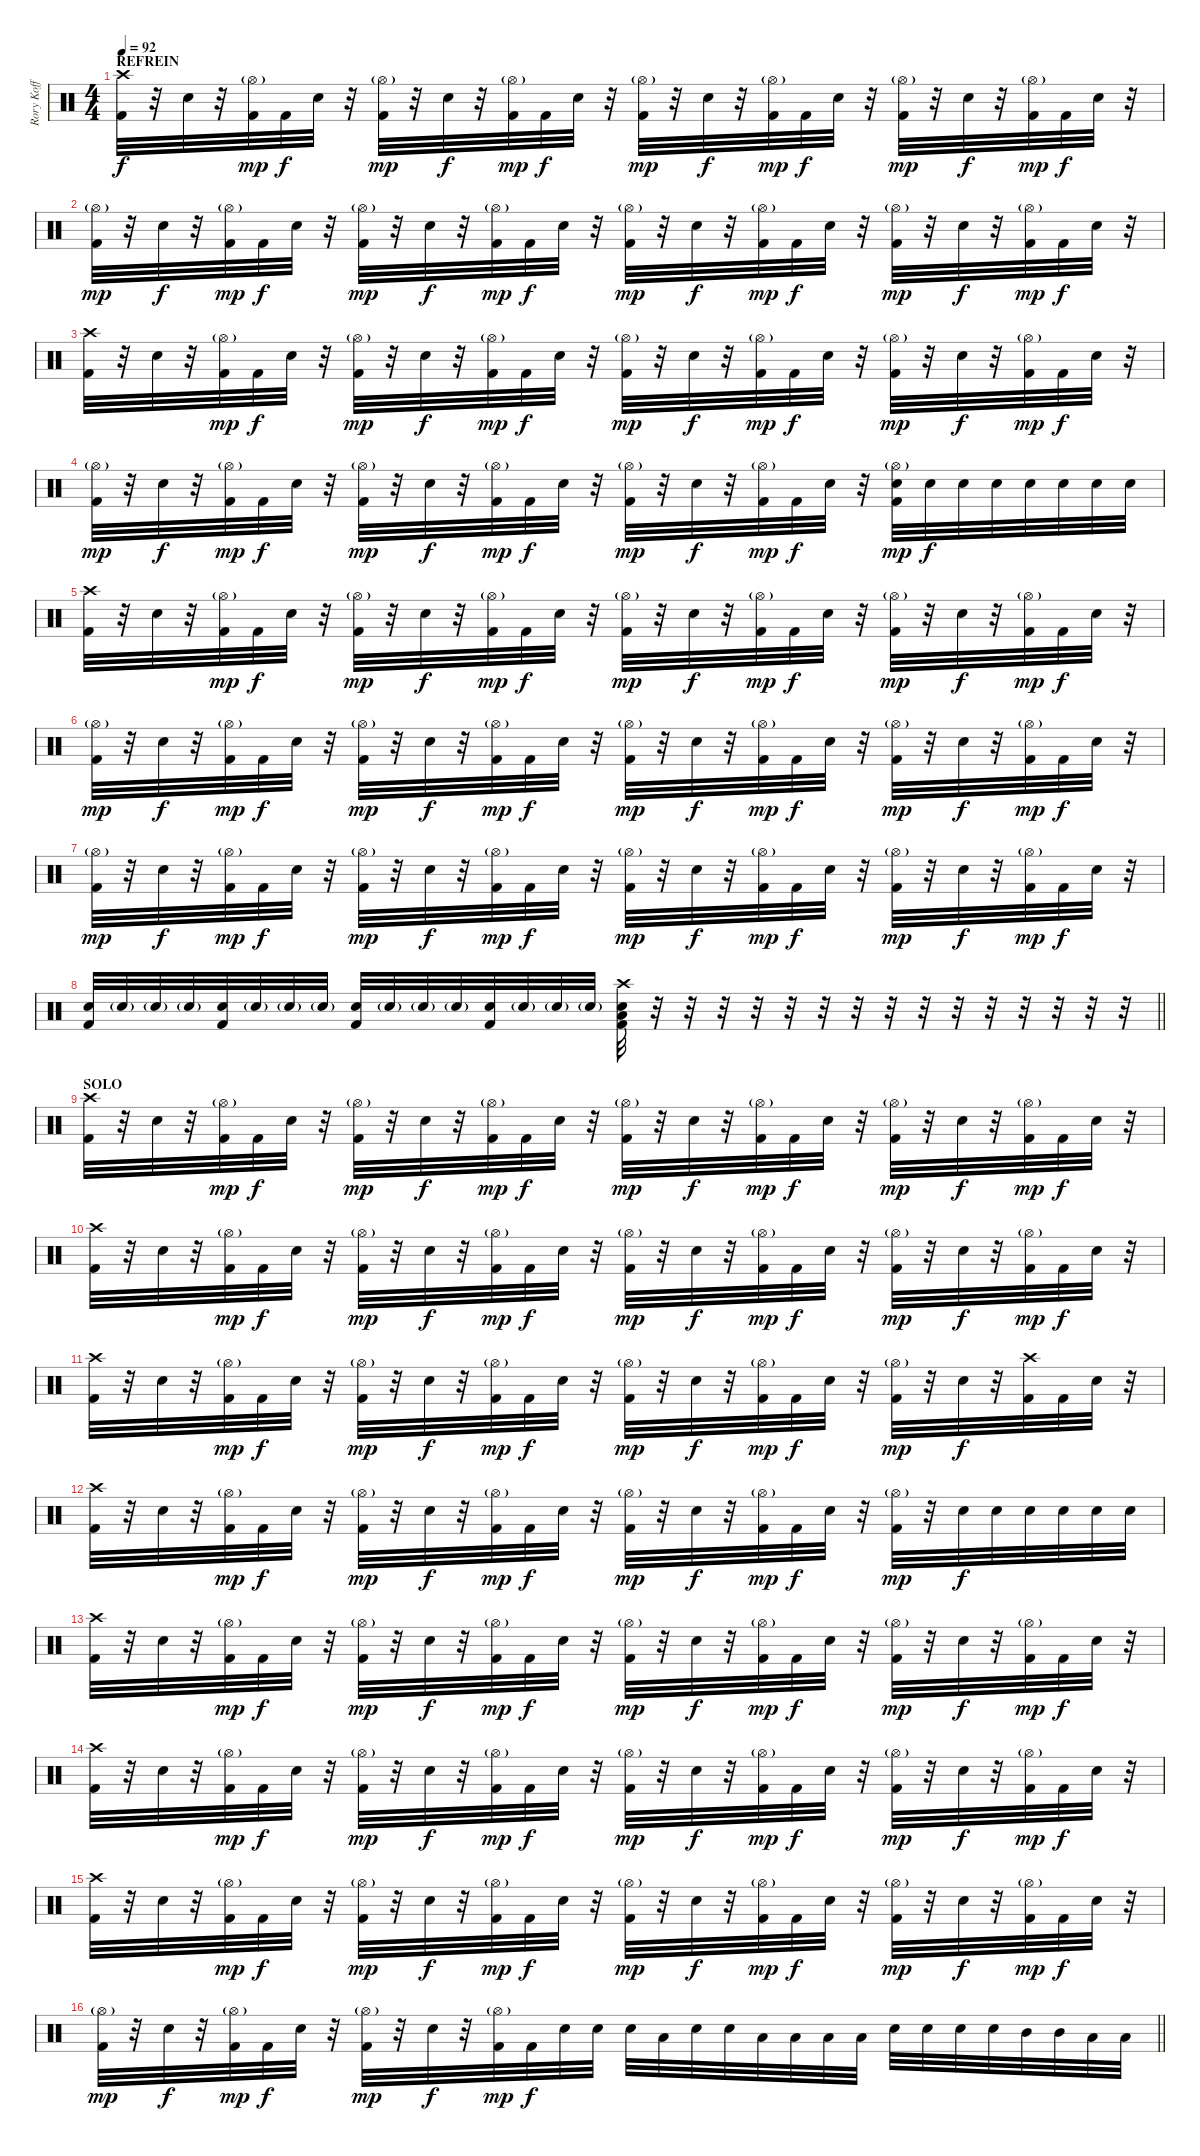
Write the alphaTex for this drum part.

\track ("Rory Koff" "Rory Koff") {instrument percussion}
\staff {score}
\articulation defaults
\ts (4 4)
\section ("" "REFREIN")
\tempo 92
\clef neutral
\ks c
("Crash high (hit)" "Kick (hit) 2").32{dy f} r.32 "Snare (hit) 2".32 r.32 ("Hi-Hat (open)"{g} "Kick (hit) 2").32{dy mp} "Kick (hit) 2".32{dy f} "Snare (hit) 2".32 r.32 ("Hi-Hat (open)"{g} "Kick (hit) 2").32{dy mp} r.32 "Snare (hit) 2".32{dy f} r.32 ("Hi-Hat (open)"{g} "Kick (hit) 2").32{dy mp} "Kick (hit) 2".32{dy f} "Snare (hit) 2".32 r.32 ("Hi-Hat (open)"{g} "Kick (hit) 2").32{dy mp} r.32 "Snare (hit) 2".32{dy f} r.32 ("Hi-Hat (open)"{g} "Kick (hit) 2").32{dy mp} "Kick (hit) 2".32{dy f} "Snare (hit) 2".32 r.32 ("Hi-Hat (open)"{g} "Kick (hit) 2").32{dy mp} r.32 "Snare (hit) 2".32{dy f} r.32 ("Hi-Hat (open)"{g} "Kick (hit) 2").32{dy mp} "Kick (hit) 2".32{dy f} "Snare (hit) 2".32 r.32 |
("Hi-Hat (open)"{g} "Kick (hit) 2").32{dy mp} r.32 "Snare (hit) 2".32{dy f} r.32 ("Hi-Hat (open)"{g} "Kick (hit) 2").32{dy mp} "Kick (hit) 2".32{dy f} "Snare (hit) 2".32 r.32 ("Hi-Hat (open)"{g} "Kick (hit) 2").32{dy mp} r.32 "Snare (hit) 2".32{dy f} r.32 ("Hi-Hat (open)"{g} "Kick (hit) 2").32{dy mp} "Kick (hit) 2".32{dy f} "Snare (hit) 2".32 r.32 ("Hi-Hat (open)"{g} "Kick (hit) 2").32{dy mp} r.32 "Snare (hit) 2".32{dy f} r.32 ("Hi-Hat (open)"{g} "Kick (hit) 2").32{dy mp} "Kick (hit) 2".32{dy f} "Snare (hit) 2".32 r.32 ("Hi-Hat (open)"{g} "Kick (hit) 2").32{dy mp} r.32 "Snare (hit) 2".32{dy f} r.32 ("Hi-Hat (open)"{g} "Kick (hit) 2").32{dy mp} "Kick (hit) 2".32{dy f} "Snare (hit) 2".32 r.32 |
("Crash high (hit)" "Kick (hit) 2").32 r.32 "Snare (hit) 2".32 r.32 ("Hi-Hat (open)"{g} "Kick (hit) 2").32{dy mp} "Kick (hit) 2".32{dy f} "Snare (hit) 2".32 r.32 ("Hi-Hat (open)"{g} "Kick (hit) 2").32{dy mp} r.32 "Snare (hit) 2".32{dy f} r.32 ("Hi-Hat (open)"{g} "Kick (hit) 2").32{dy mp} "Kick (hit) 2".32{dy f} "Snare (hit) 2".32 r.32 ("Hi-Hat (open)"{g} "Kick (hit) 2").32{dy mp} r.32 "Snare (hit) 2".32{dy f} r.32 ("Hi-Hat (open)"{g} "Kick (hit) 2").32{dy mp} "Kick (hit) 2".32{dy f} "Snare (hit) 2".32 r.32 ("Hi-Hat (open)"{g} "Kick (hit) 2").32{dy mp} r.32 "Snare (hit) 2".32{dy f} r.32 ("Hi-Hat (open)"{g} "Kick (hit) 2").32{dy mp} "Kick (hit) 2".32{dy f} "Snare (hit) 2".32 r.32 |
("Hi-Hat (open)"{g} "Kick (hit) 2").32{dy mp} r.32 "Snare (hit) 2".32{dy f} r.32 ("Hi-Hat (open)"{g} "Kick (hit) 2").32{dy mp} "Kick (hit) 2".32{dy f} "Snare (hit) 2".32 r.32 ("Hi-Hat (open)"{g} "Kick (hit) 2").32{dy mp} r.32 "Snare (hit) 2".32{dy f} r.32 ("Hi-Hat (open)"{g} "Kick (hit) 2").32{dy mp} "Kick (hit) 2".32{dy f} "Snare (hit) 2".32 r.32 ("Hi-Hat (open)"{g} "Kick (hit) 2").32{dy mp} r.32 "Snare (hit) 2".32{dy f} r.32 ("Hi-Hat (open)"{g} "Kick (hit) 2").32{dy mp} "Kick (hit) 2".32{dy f} "Snare (hit) 2".32 r.32 ("Hi-Hat (open)"{g} "Snare (hit) 2" "Kick (hit) 2").32{dy mp} "Snare (hit) 2".32{dy f} "Snare (hit) 2".32 "Snare (hit) 2".32 "Snare (hit) 2".32 "Snare (hit) 2".32 "Snare (hit) 2".32 "Snare (hit) 2".32 |
("Crash high (hit)" "Kick (hit) 2").32 r.32 "Snare (hit) 2".32 r.32 ("Hi-Hat (open)"{g} "Kick (hit) 2").32{dy mp} "Kick (hit) 2".32{dy f} "Snare (hit) 2".32 r.32 ("Hi-Hat (open)"{g} "Kick (hit) 2").32{dy mp} r.32 "Snare (hit) 2".32{dy f} r.32 ("Hi-Hat (open)"{g} "Kick (hit) 2").32{dy mp} "Kick (hit) 2".32{dy f} "Snare (hit) 2".32 r.32 ("Hi-Hat (open)"{g} "Kick (hit) 2").32{dy mp} r.32 "Snare (hit) 2".32{dy f} r.32 ("Hi-Hat (open)"{g} "Kick (hit) 2").32{dy mp} "Kick (hit) 2".32{dy f} "Snare (hit) 2".32 r.32 ("Hi-Hat (open)"{g} "Kick (hit) 2").32{dy mp} r.32 "Snare (hit) 2".32{dy f} r.32 ("Hi-Hat (open)"{g} "Kick (hit) 2").32{dy mp} "Kick (hit) 2".32{dy f} "Snare (hit) 2".32 r.32 |
("Hi-Hat (open)"{g} "Kick (hit) 2").32{dy mp} r.32 "Snare (hit) 2".32{dy f} r.32 ("Hi-Hat (open)"{g} "Kick (hit) 2").32{dy mp} "Kick (hit) 2".32{dy f} "Snare (hit) 2".32 r.32 ("Hi-Hat (open)"{g} "Kick (hit) 2").32{dy mp} r.32 "Snare (hit) 2".32{dy f} r.32 ("Hi-Hat (open)"{g} "Kick (hit) 2").32{dy mp} "Kick (hit) 2".32{dy f} "Snare (hit) 2".32 r.32 ("Hi-Hat (open)"{g} "Kick (hit) 2").32{dy mp} r.32 "Snare (hit) 2".32{dy f} r.32 ("Hi-Hat (open)"{g} "Kick (hit) 2").32{dy mp} "Kick (hit) 2".32{dy f} "Snare (hit) 2".32 r.32 ("Hi-Hat (open)"{g} "Kick (hit) 2").32{dy mp} r.32 "Snare (hit) 2".32{dy f} r.32 ("Hi-Hat (open)"{g} "Kick (hit) 2").32{dy mp} "Kick (hit) 2".32{dy f} "Snare (hit) 2".32 r.32 |
("Hi-Hat (open)"{g} "Kick (hit) 2").32{dy mp} r.32 "Snare (hit) 2".32{dy f} r.32 ("Hi-Hat (open)"{g} "Kick (hit) 2").32{dy mp} "Kick (hit) 2".32{dy f} "Snare (hit) 2".32 r.32 ("Hi-Hat (open)"{g} "Kick (hit) 2").32{dy mp} r.32 "Snare (hit) 2".32{dy f} r.32 ("Hi-Hat (open)"{g} "Kick (hit) 2").32{dy mp} "Kick (hit) 2".32{dy f} "Snare (hit) 2".32 r.32 ("Hi-Hat (open)"{g} "Kick (hit) 2").32{dy mp} r.32 "Snare (hit) 2".32{dy f} r.32 ("Hi-Hat (open)"{g} "Kick (hit) 2").32{dy mp} "Kick (hit) 2".32{dy f} "Snare (hit) 2".32 r.32 ("Hi-Hat (open)"{g} "Kick (hit) 2").32{dy mp} r.32 "Snare (hit) 2".32{dy f} r.32 ("Hi-Hat (open)"{g} "Kick (hit) 2").32{dy mp} "Kick (hit) 2".32{dy f} "Snare (hit) 2".32 r.32 |
\barLineRight lightlight
("Snare (hit) 2" "Kick (hit) 2").32 "Snare (hit) 2"{g}.32 "Snare (hit) 2"{g}.32 "Snare (hit) 2"{g}.32 ("Snare (hit) 2" "Kick (hit) 2").32 "Snare (hit) 2"{g}.32 "Snare (hit) 2"{g}.32 "Snare (hit) 2"{g}.32 ("Snare (hit) 2" "Kick (hit) 2").32 "Snare (hit) 2"{g}.32 "Snare (hit) 2"{g}.32 "Snare (hit) 2"{g}.32 ("Snare (hit) 2" "Kick (hit) 2").32 "Snare (hit) 2"{g}.32 "Snare (hit) 2"{g}.32 "Snare (hit) 2"{g}.32 ("Crash high (hit)" "Low Floor Tom (hit)" "Snare (hit) 2" "Kick (hit) 2").32 r.32 r.32 r.32 r.32 r.32 r.32 r.32 r.32 r.32 r.32 r.32 r.32 r.32 r.32 r.32 |
\section ("" "SOLO")
("Crash high (hit)" "Kick (hit) 2").32 r.32 "Snare (hit) 2".32 r.32 ("Hi-Hat (open)"{g} "Kick (hit) 2").32{dy mp} "Kick (hit) 2".32{dy f} "Snare (hit) 2".32 r.32 ("Hi-Hat (open)"{g} "Kick (hit) 2").32{dy mp} r.32 "Snare (hit) 2".32{dy f} r.32 ("Hi-Hat (open)"{g} "Kick (hit) 2").32{dy mp} "Kick (hit) 2".32{dy f} "Snare (hit) 2".32 r.32 ("Hi-Hat (open)"{g} "Kick (hit) 2").32{dy mp} r.32 "Snare (hit) 2".32{dy f} r.32 ("Hi-Hat (open)"{g} "Kick (hit) 2").32{dy mp} "Kick (hit) 2".32{dy f} "Snare (hit) 2".32 r.32 ("Hi-Hat (open)"{g} "Kick (hit) 2").32{dy mp} r.32 "Snare (hit) 2".32{dy f} r.32 ("Hi-Hat (open)"{g} "Kick (hit) 2").32{dy mp} "Kick (hit) 2".32{dy f} "Snare (hit) 2".32 r.32 |
("Crash high (hit)" "Kick (hit) 2").32 r.32 "Snare (hit) 2".32 r.32 ("Hi-Hat (open)"{g} "Kick (hit) 2").32{dy mp} "Kick (hit) 2".32{dy f} "Snare (hit) 2".32 r.32 ("Hi-Hat (open)"{g} "Kick (hit) 2").32{dy mp} r.32 "Snare (hit) 2".32{dy f} r.32 ("Hi-Hat (open)"{g} "Kick (hit) 2").32{dy mp} "Kick (hit) 2".32{dy f} "Snare (hit) 2".32 r.32 ("Hi-Hat (open)"{g} "Kick (hit) 2").32{dy mp} r.32 "Snare (hit) 2".32{dy f} r.32 ("Hi-Hat (open)"{g} "Kick (hit) 2").32{dy mp} "Kick (hit) 2".32{dy f} "Snare (hit) 2".32 r.32 ("Hi-Hat (open)"{g} "Kick (hit) 2").32{dy mp} r.32 "Snare (hit) 2".32{dy f} r.32 ("Hi-Hat (open)"{g} "Kick (hit) 2").32{dy mp} "Kick (hit) 2".32{dy f} "Snare (hit) 2".32 r.32 |
("Crash high (hit)" "Kick (hit) 2").32 r.32 "Snare (hit) 2".32 r.32 ("Hi-Hat (open)"{g} "Kick (hit) 2").32{dy mp} "Kick (hit) 2".32{dy f} "Snare (hit) 2".32 r.32 ("Hi-Hat (open)"{g} "Kick (hit) 2").32{dy mp} r.32 "Snare (hit) 2".32{dy f} r.32 ("Hi-Hat (open)"{g} "Kick (hit) 2").32{dy mp} "Kick (hit) 2".32{dy f} "Snare (hit) 2".32 r.32 ("Hi-Hat (open)"{g} "Kick (hit) 2").32{dy mp} r.32 "Snare (hit) 2".32{dy f} r.32 ("Hi-Hat (open)"{g} "Kick (hit) 2").32{dy mp} "Kick (hit) 2".32{dy f} "Snare (hit) 2".32 r.32 ("Hi-Hat (open)"{g} "Kick (hit) 2").32{dy mp} r.32 "Snare (hit) 2".32{dy f} r.32 ("Crash high (hit)" "Kick (hit) 2").32 "Kick (hit) 2".32 "Snare (hit) 2".32 r.32 |
("Crash high (hit)" "Kick (hit) 2").32 r.32 "Snare (hit) 2".32 r.32 ("Hi-Hat (open)"{g} "Kick (hit) 2").32{dy mp} "Kick (hit) 2".32{dy f} "Snare (hit) 2".32 r.32 ("Hi-Hat (open)"{g} "Kick (hit) 2").32{dy mp} r.32 "Snare (hit) 2".32{dy f} r.32 ("Hi-Hat (open)"{g} "Kick (hit) 2").32{dy mp} "Kick (hit) 2".32{dy f} "Snare (hit) 2".32 r.32 ("Hi-Hat (open)"{g} "Kick (hit) 2").32{dy mp} r.32 "Snare (hit) 2".32{dy f} r.32 ("Hi-Hat (open)"{g} "Kick (hit) 2").32{dy mp} "Kick (hit) 2".32{dy f} "Snare (hit) 2".32 r.32 ("Hi-Hat (open)"{g} "Kick (hit) 2").32{dy mp} r.32 "Snare (hit) 2".32{dy f} "Snare (hit) 2".32 "Snare (hit) 2".32 "Snare (hit) 2".32 "Snare (hit) 2".32 "Snare (hit) 2".32 |
("Crash high (hit)" "Kick (hit) 2").32 r.32 "Snare (hit) 2".32 r.32 ("Hi-Hat (open)"{g} "Kick (hit) 2").32{dy mp} "Kick (hit) 2".32{dy f} "Snare (hit) 2".32 r.32 ("Hi-Hat (open)"{g} "Kick (hit) 2").32{dy mp} r.32 "Snare (hit) 2".32{dy f} r.32 ("Hi-Hat (open)"{g} "Kick (hit) 2").32{dy mp} "Kick (hit) 2".32{dy f} "Snare (hit) 2".32 r.32 ("Hi-Hat (open)"{g} "Kick (hit) 2").32{dy mp} r.32 "Snare (hit) 2".32{dy f} r.32 ("Hi-Hat (open)"{g} "Kick (hit) 2").32{dy mp} "Kick (hit) 2".32{dy f} "Snare (hit) 2".32 r.32 ("Hi-Hat (open)"{g} "Kick (hit) 2").32{dy mp} r.32 "Snare (hit) 2".32{dy f} r.32 ("Hi-Hat (open)"{g} "Kick (hit) 2").32{dy mp} "Kick (hit) 2".32{dy f} "Snare (hit) 2".32 r.32 |
("Crash high (hit)" "Kick (hit) 2").32 r.32 "Snare (hit) 2".32 r.32 ("Hi-Hat (open)"{g} "Kick (hit) 2").32{dy mp} "Kick (hit) 2".32{dy f} "Snare (hit) 2".32 r.32 ("Hi-Hat (open)"{g} "Kick (hit) 2").32{dy mp} r.32 "Snare (hit) 2".32{dy f} r.32 ("Hi-Hat (open)"{g} "Kick (hit) 2").32{dy mp} "Kick (hit) 2".32{dy f} "Snare (hit) 2".32 r.32 ("Hi-Hat (open)"{g} "Kick (hit) 2").32{dy mp} r.32 "Snare (hit) 2".32{dy f} r.32 ("Hi-Hat (open)"{g} "Kick (hit) 2").32{dy mp} "Kick (hit) 2".32{dy f} "Snare (hit) 2".32 r.32 ("Hi-Hat (open)"{g} "Kick (hit) 2").32{dy mp} r.32 "Snare (hit) 2".32{dy f} r.32 ("Hi-Hat (open)"{g} "Kick (hit) 2").32{dy mp} "Kick (hit) 2".32{dy f} "Snare (hit) 2".32 r.32 |
("Crash high (hit)" "Kick (hit) 2").32 r.32 "Snare (hit) 2".32 r.32 ("Hi-Hat (open)"{g} "Kick (hit) 2").32{dy mp} "Kick (hit) 2".32{dy f} "Snare (hit) 2".32 r.32 ("Hi-Hat (open)"{g} "Kick (hit) 2").32{dy mp} r.32 "Snare (hit) 2".32{dy f} r.32 ("Hi-Hat (open)"{g} "Kick (hit) 2").32{dy mp} "Kick (hit) 2".32{dy f} "Snare (hit) 2".32 r.32 ("Hi-Hat (open)"{g} "Kick (hit) 2").32{dy mp} r.32 "Snare (hit) 2".32{dy f} r.32 ("Hi-Hat (open)"{g} "Kick (hit) 2").32{dy mp} "Kick (hit) 2".32{dy f} "Snare (hit) 2".32 r.32 ("Hi-Hat (open)"{g} "Kick (hit) 2").32{dy mp} r.32 "Snare (hit) 2".32{dy f} r.32 ("Hi-Hat (open)"{g} "Kick (hit) 2").32{dy mp} "Kick (hit) 2".32{dy f} "Snare (hit) 2".32 r.32 |
\barLineRight lightlight
("Hi-Hat (open)"{g} "Kick (hit) 2").32{dy mp} r.32 "Snare (hit) 2".32{dy f} r.32 ("Hi-Hat (open)"{g} "Kick (hit) 2").32{dy mp} "Kick (hit) 2".32{dy f} "Snare (hit) 2".32 r.32 ("Hi-Hat (open)"{g} "Kick (hit) 2").32{dy mp} r.32 "Snare (hit) 2".32{dy f} r.32 ("Hi-Hat (open)"{g} "Kick (hit) 2").32{dy mp} "Kick (hit) 2".32{dy f} "Snare (hit) 2".32 "Snare (hit) 2".32 "Snare (hit) 2".32 "Low Tom (hit)".32 "Snare (hit) 2".32 "Snare (hit) 2".32 "Low Tom (hit)".32 "Low Tom (hit)".32 "Low Tom (hit)".32 "Low Tom (hit)".32 "Snare (hit) 2".32 "Snare (hit) 2".32 "Snare (hit) 2".32 "Snare (hit) 2".32 "Mid Tom (hit)".32 "Mid Tom (hit)".32 "Low Tom (hit)".32 "Low Tom (hit)".32
